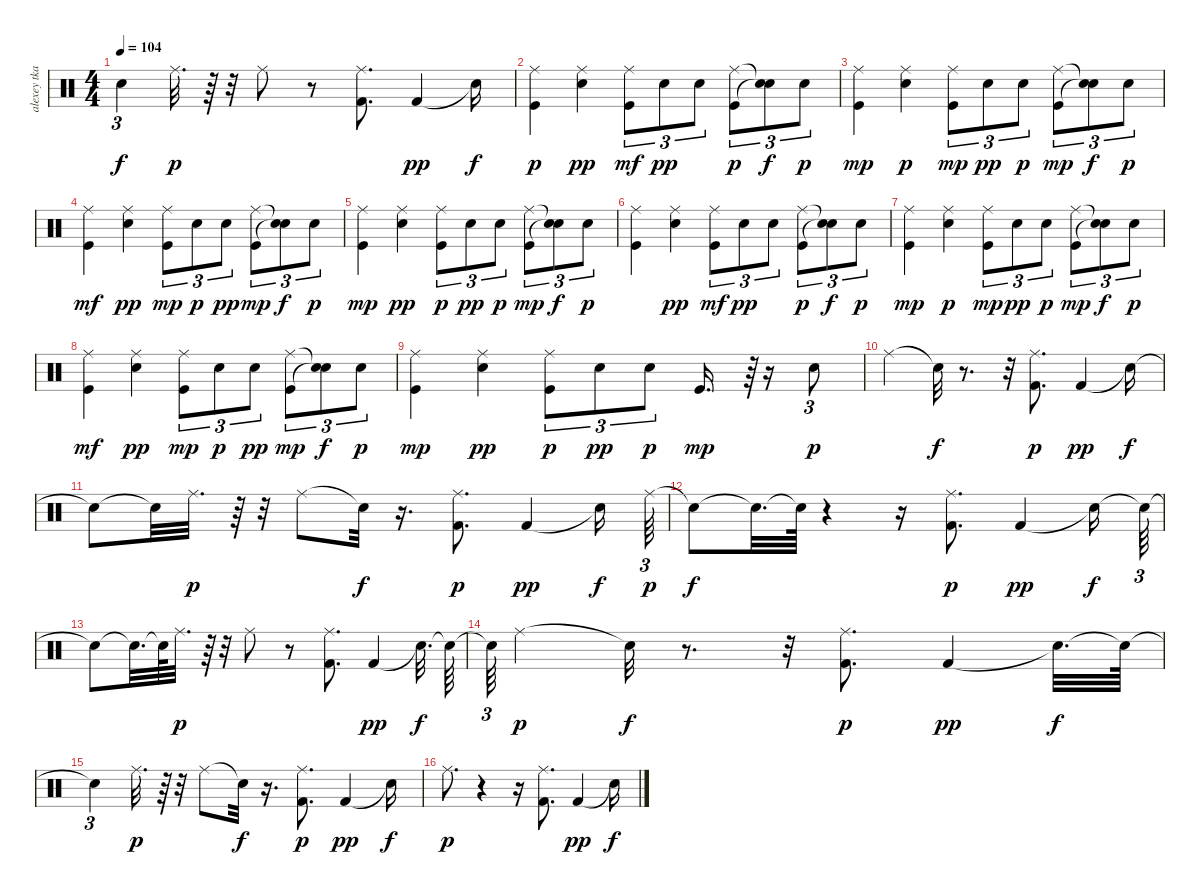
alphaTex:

\track ("alexey tkachevsky" "alexey tka") {instrument percussion}
\staff {score}
\articulation defaults
\ts (4 4)
\tempo 104
\clef neutral
\ks c "Snare (hit)"{t}.4{tu (3 2) dy f} "Ride (middle)".32{d dy p}
r.64 r.32 "Ride (middle)".8 r.8 ("Kick (hit) 2" "Ride (middle)").8{d} "Kick (hit) 2".4{dy pp} "Snare (hit)"{t}.16{dy f} |
("Ride (middle)" "Kick (hit)").4{dy p} ("Snare (hit)" "Ride (middle)").4{dy pp} ("Kick (hit)" "Ride (middle)").8{tu (3 2) dy mf} "Snare (hit)".8{tu (3 2) dy pp} "Snare (hit)".8{tu (3 2)} ("Kick (hit)" "Ride (middle)").8{tu (3 2) dy p} ("Snare (hit)"{t} "Snare (hit)"{t}).8{tu (3 2) dy f} "Snare (hit)".8{tu (3 2) dy p} |
("Kick (hit)" "Ride (middle)").4{dy mp} ("Ride (middle)" "Snare (hit)").4{dy p} ("Ride (middle)" "Kick (hit)").8{tu (3 2) dy mp} "Snare (hit)".8{tu (3 2) dy pp} "Snare (hit)".8{tu (3 2) dy p} ("Ride (middle)" "Kick (hit)").8{tu (3 2) dy mp} ("Snare (hit)"{t} "Snare (hit)"{t}).8{tu (3 2) dy f} "Snare (hit)".8{tu (3 2) dy p} |
("Ride (middle)" "Kick (hit)").4{dy mf} ("Ride (middle)" "Snare (hit)").4{dy pp} ("Ride (middle)" "Kick (hit)").8{tu (3 2) dy mp} "Snare (hit)".8{tu (3 2) dy p} "Snare (hit)".8{tu (3 2) dy pp} ("Ride (middle)" "Kick (hit)").8{tu (3 2) dy mp} ("Snare (hit)"{t} "Snare (hit)"{t}).8{tu (3 2) dy f} "Snare (hit)".8{tu (3 2) dy p} |
("Ride (middle)" "Kick (hit)").4{dy mp} ("Ride (middle)" "Snare (hit)").4{dy pp} ("Ride (middle)" "Kick (hit)").8{tu (3 2) dy p} "Snare (hit)".8{tu (3 2) dy pp} "Snare (hit)".8{tu (3 2) dy p} ("Ride (middle)" "Kick (hit)").8{tu (3 2) dy mp} ("Snare (hit)"{t} "Snare (hit)"{t}).8{tu (3 2) dy f} "Snare (hit)".8{tu (3 2) dy p} |
("Ride (middle)" "Kick (hit)").4 ("Snare (hit)" "Ride (middle)").4{dy pp} ("Kick (hit)" "Ride (middle)").8{tu (3 2) dy mf} "Snare (hit)".8{tu (3 2) dy pp} "Snare (hit)".8{tu (3 2)} ("Kick (hit)" "Ride (middle)").8{tu (3 2) dy p} ("Snare (hit)"{t} "Snare (hit)"{t}).8{tu (3 2) dy f} "Snare (hit)".8{tu (3 2) dy p} |
("Kick (hit)" "Ride (middle)").4{dy mp} ("Ride (middle)" "Snare (hit)").4{dy p} ("Ride (middle)" "Kick (hit)").8{tu (3 2) dy mp} "Snare (hit)".8{tu (3 2) dy pp} "Snare (hit)".8{tu (3 2) dy p} ("Ride (middle)" "Kick (hit)").8{tu (3 2) dy mp} ("Snare (hit)"{t} "Snare (hit)"{t}).8{tu (3 2) dy f} "Snare (hit)".8{tu (3 2) dy p} |
("Ride (middle)" "Kick (hit)").4{dy mf} ("Ride (middle)" "Snare (hit)").4{dy pp} ("Ride (middle)" "Kick (hit)").8{tu (3 2) dy mp} "Snare (hit)".8{tu (3 2) dy p} "Snare (hit)".8{tu (3 2) dy pp} ("Ride (middle)" "Kick (hit)").8{tu (3 2) dy mp} ("Snare (hit)"{t} "Snare (hit)"{t}).8{tu (3 2) dy f} "Snare (hit)".8{tu (3 2) dy p} |
("Ride (middle)" "Kick (hit)").4{dy mp} ("Ride (middle)" "Snare (hit)").4{dy pp} ("Ride (middle)" "Kick (hit)").8{tu (3 2) dy p} "Snare (hit)".8{tu (3 2) dy pp} "Snare (hit)".8{tu (3 2) dy p} "Kick (hit)".16{d dy mp} r.64{tu (3 2)} r.16 "Snare (hit)".8{tu (3 2) dy p} |
"Ride (middle)".4 "Snare (hit)"{t}.32{dy f} r.8{d} r.32 ("Kick (hit) 2" "Ride (middle)").8{d dy p} "Kick (hit) 2".4{dy pp} "Snare (hit)"{t}.16{dy f} |
"Snare (hit)"{t}.8 "Snare (hit)"{t}.32 "Ride (middle)".32{d dy p} r.64 r.32 "Ride (middle)".8 "Snare (hit)"{t}.32{dy f} r.16{d} ("Kick (hit) 2" "Ride (middle)").8{d dy p} "Kick (hit) 2".4{dy pp} "Snare (hit)"{t}.16{dy f} "Ride (middle)".64{tu (3 2) dy p} |
"Snare (hit)"{t}.8{dy f} "Snare (hit)"{t}.32{d} "Snare (hit)"{t}.64 r.4 r.16 ("Kick (hit) 2" "Ride (middle)").8{d dy p} "Kick (hit) 2".4{dy pp} "Snare (hit)"{t}.16{dy f} "Snare (hit)"{t}.64{tu (3 2)} |
"Snare (hit)"{t}.8 "Snare (hit)"{t}.32{d} "Snare (hit)"{t}.64 "Ride (middle)".32{d dy p} r.64 r.32 "Ride (middle)".8 r.8 ("Kick (hit) 2" "Ride (middle)").8{d} "Kick (hit) 2".4{dy pp} "Snare (hit)"{t}.32{d dy f} "Snare (hit)"{t}.64 |
"Snare (hit)"{t}.64{tu (3 2)} "Ride (middle)".4{dy p} "Snare (hit)"{t}.32{dy f} r.8{d} r.32 ("Kick (hit) 2" "Ride (middle)").8{d dy p} "Kick (hit) 2".4{dy pp} "Snare (hit)"{t}.32{d dy f} "Snare (hit)"{t}.64 |
"Snare (hit)"{t}.4{tu (3 2)} "Ride (middle)".32{d dy p} r.64 r.32 "Ride (middle)".8 "Snare (hit)"{t}.32{dy f} r.16{d} ("Kick (hit) 2" "Ride (middle)").8{d dy p} "Kick (hit) 2".4{dy pp} "Snare (hit)"{t}.16{dy f} |
"Ride (middle)".8{d dy p} r.4 r.16 ("Kick (hit) 2" "Ride (middle)").8{d} "Kick (hit) 2".4{dy pp} "Snare (hit)"{t}.16{dy f}
